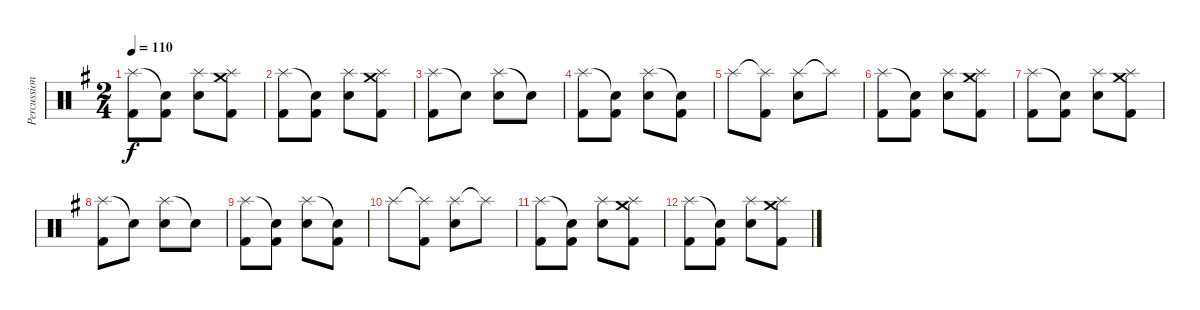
\track ("Percussion" "Percussion") {instrument percussion}
\staff {score}
\articulation defaults
\ts (2 4)
\tempo 110
\clef neutral
\ks g
("Splash (hit)" "Kick (hit) 2").8{dy f} ("Snare (hit)"{t} "Kick (hit) 2").8 ("Splash (hit)" "Electric Snare (hit)").8 ("Crash medium (hit)" "Splash (hit)" "Kick (hit) 2").8 |
("Splash (hit)" "Kick (hit) 2").8 ("Snare (hit)"{t} "Kick (hit) 2").8 ("Splash (hit)" "Electric Snare (hit)").8 ("Crash medium (hit)" "Splash (hit)" "Kick (hit) 2").8 |
("Splash (hit)" "Kick (hit) 2").8 "Snare (hit)"{t}.8 ("Splash (hit)" "Electric Snare (hit)").8 "Snare (hit)"{t}.8 |
("Splash (hit)" "Kick (hit) 2").8 ("Snare (hit)"{t} "Kick (hit) 2").8 ("Splash (hit)" "Electric Snare (hit)").8 ("Snare (hit)"{t} "Kick (hit) 2").8 |
"Splash (hit)".8 ("Splash (hit)"{t} "Kick (hit) 2").8 ("Splash (hit)" "Electric Snare (hit)").8 "Splash (hit)"{t}.8 |
("Splash (hit)" "Kick (hit) 2").8 ("Snare (hit)"{t} "Kick (hit) 2").8 ("Splash (hit)" "Electric Snare (hit)").8 ("Crash medium (hit)" "Splash (hit)" "Kick (hit) 2").8 |
("Splash (hit)" "Kick (hit) 2").8 ("Snare (hit)"{t} "Kick (hit) 2").8 ("Splash (hit)" "Electric Snare (hit)").8 ("Crash medium (hit)" "Splash (hit)" "Kick (hit) 2").8 |
("Splash (hit)" "Kick (hit) 2").8 "Snare (hit)"{t}.8 ("Splash (hit)" "Electric Snare (hit)").8 "Snare (hit)"{t}.8 |
("Splash (hit)" "Kick (hit) 2").8 ("Snare (hit)"{t} "Kick (hit) 2").8 ("Splash (hit)" "Electric Snare (hit)").8 ("Snare (hit)"{t} "Kick (hit) 2").8 |
"Splash (hit)".8 ("Splash (hit)"{t} "Kick (hit) 2").8 ("Splash (hit)" "Electric Snare (hit)").8 "Splash (hit)"{t}.8 |
("Splash (hit)" "Kick (hit) 2").8 ("Snare (hit)"{t} "Kick (hit) 2").8 ("Splash (hit)" "Electric Snare (hit)").8 ("Crash medium (hit)" "Splash (hit)" "Kick (hit) 2").8 |
("Splash (hit)" "Kick (hit) 2").8 ("Snare (hit)"{t} "Kick (hit) 2").8 ("Splash (hit)" "Electric Snare (hit)").8 ("Crash medium (hit)" "Splash (hit)" "Kick (hit) 2").8
